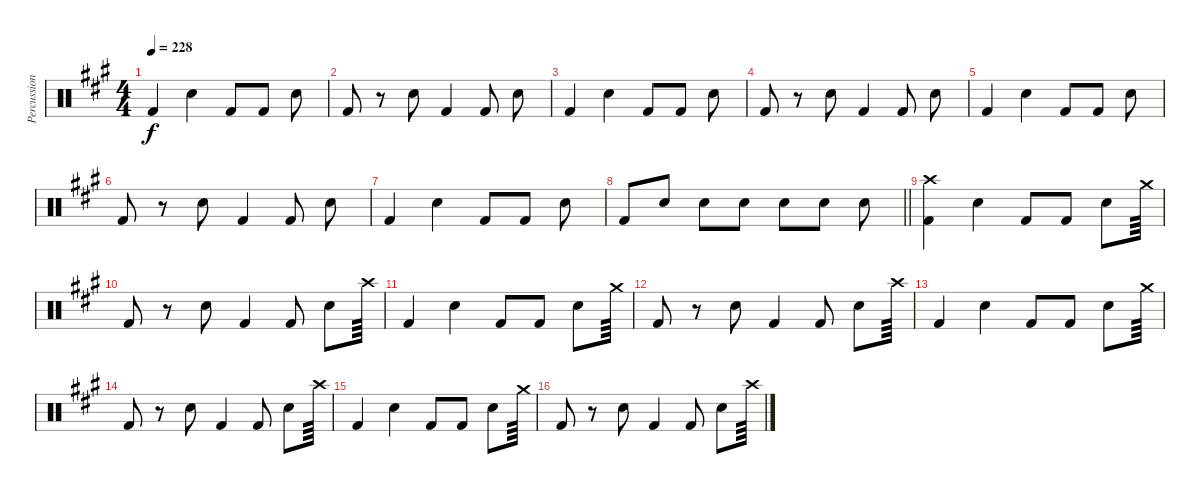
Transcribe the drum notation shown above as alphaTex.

\track ("Percussion" "Percussion") {instrument percussion}
\staff {score}
\articulation defaults
\ts (4 4)
\tempo 228
\clef neutral
\ks a "Kick (hit) 2".4{dy f} "Snare (hit) 2".4 "Kick (hit) 2".8 "Kick (hit) 2".8 "Snare (hit) 2".8
|
"Kick (hit) 2".8 r.8 "Snare (hit) 2".8 "Kick (hit) 2".4 "Kick (hit) 2".8 "Snare (hit) 2".8 |
"Kick (hit) 2".4 "Snare (hit) 2".4 "Kick (hit) 2".8 "Kick (hit) 2".8 "Snare (hit) 2".8 |
"Kick (hit) 2".8 r.8 "Snare (hit) 2".8 "Kick (hit) 2".4 "Kick (hit) 2".8 "Snare (hit) 2".8 |
"Kick (hit) 2".4 "Snare (hit) 2".4 "Kick (hit) 2".8 "Kick (hit) 2".8 "Snare (hit) 2".8 |
"Kick (hit) 2".8 r.8 "Snare (hit) 2".8 "Kick (hit) 2".4 "Kick (hit) 2".8 "Snare (hit) 2".8 |
"Kick (hit) 2".4 "Snare (hit) 2".4 "Kick (hit) 2".8 "Kick (hit) 2".8 "Snare (hit) 2".8 |
\barLineRight lightlight "Kick (hit) 2".8 "Snare (hit) 2".8 "Snare (hit) 2".8 "Snare (hit) 2".8 "Snare (hit) 2".8 "Snare (hit) 2".8 "Snare (hit) 2".8
|
("Kick (hit) 2" "Crash high (hit)").4 "Snare (hit) 2".4 "Kick (hit) 2".8 "Kick (hit) 2".8 "Snare (hit) 2".8 "Crash medium (hit)".64 |
"Kick (hit) 2".8 r.8 "Snare (hit) 2".8 "Kick (hit) 2".4 "Kick (hit) 2".8 "Snare (hit) 2".8 "Crash high (hit)".64 |
"Kick (hit) 2".4 "Snare (hit) 2".4 "Kick (hit) 2".8 "Kick (hit) 2".8 "Snare (hit) 2".8 "Crash medium (hit)".64 |
"Kick (hit) 2".8 r.8 "Snare (hit) 2".8 "Kick (hit) 2".4 "Kick (hit) 2".8 "Snare (hit) 2".8 "Crash high (hit)".64 |
"Kick (hit) 2".4 "Snare (hit) 2".4 "Kick (hit) 2".8 "Kick (hit) 2".8 "Snare (hit) 2".8 "Crash medium (hit)".64 |
"Kick (hit) 2".8 r.8 "Snare (hit) 2".8 "Kick (hit) 2".4 "Kick (hit) 2".8 "Snare (hit) 2".8 "Crash high (hit)".64 |
"Kick (hit) 2".4 "Snare (hit) 2".4 "Kick (hit) 2".8 "Kick (hit) 2".8 "Snare (hit) 2".8 "Crash medium (hit)".64 |
"Kick (hit) 2".8 r.8 "Snare (hit) 2".8 "Kick (hit) 2".4 "Kick (hit) 2".8 "Snare (hit) 2".8 "Crash high (hit)".64
